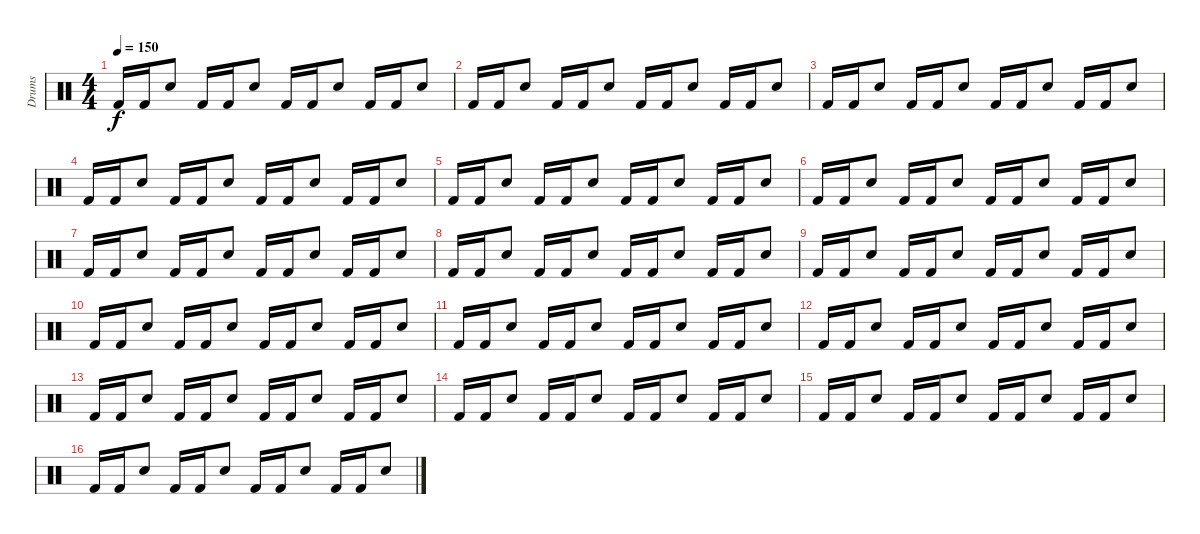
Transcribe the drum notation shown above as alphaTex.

\track ("Drums" "Drums") {instrument percussion}
\staff {score}
\articulation defaults
\ts (4 4)
\tempo 150
\clef neutral
\ks c "Kick (hit) 2".16{dy f} "Kick (hit) 2".16 "Snare (hit) 2".8 "Kick (hit) 2".16 "Kick (hit) 2".16 "Snare (hit) 2".8 "Kick (hit) 2".16 "Kick (hit) 2".16 "Snare (hit) 2".8 "Kick (hit) 2".16 "Kick (hit) 2".16 "Snare (hit) 2".8
|
"Kick (hit) 2".16 "Kick (hit) 2".16 "Snare (hit) 2".8 "Kick (hit) 2".16 "Kick (hit) 2".16 "Snare (hit) 2".8 "Kick (hit) 2".16 "Kick (hit) 2".16 "Snare (hit) 2".8 "Kick (hit) 2".16 "Kick (hit) 2".16 "Snare (hit) 2".8 |
"Kick (hit) 2".16 "Kick (hit) 2".16 "Snare (hit) 2".8 "Kick (hit) 2".16 "Kick (hit) 2".16 "Snare (hit) 2".8 "Kick (hit) 2".16 "Kick (hit) 2".16 "Snare (hit) 2".8 "Kick (hit) 2".16 "Kick (hit) 2".16 "Snare (hit) 2".8 |
"Kick (hit) 2".16 "Kick (hit) 2".16 "Snare (hit) 2".8 "Kick (hit) 2".16 "Kick (hit) 2".16 "Snare (hit) 2".8 "Kick (hit) 2".16 "Kick (hit) 2".16 "Snare (hit) 2".8 "Kick (hit) 2".16 "Kick (hit) 2".16 "Snare (hit) 2".8 |
"Kick (hit) 2".16 "Kick (hit) 2".16 "Snare (hit) 2".8 "Kick (hit) 2".16 "Kick (hit) 2".16 "Snare (hit) 2".8 "Kick (hit) 2".16 "Kick (hit) 2".16 "Snare (hit) 2".8 "Kick (hit) 2".16 "Kick (hit) 2".16 "Snare (hit) 2".8 |
"Kick (hit) 2".16 "Kick (hit) 2".16 "Snare (hit) 2".8 "Kick (hit) 2".16 "Kick (hit) 2".16 "Snare (hit) 2".8 "Kick (hit) 2".16 "Kick (hit) 2".16 "Snare (hit) 2".8 "Kick (hit) 2".16 "Kick (hit) 2".16 "Snare (hit) 2".8 |
"Kick (hit) 2".16 "Kick (hit) 2".16 "Snare (hit) 2".8 "Kick (hit) 2".16 "Kick (hit) 2".16 "Snare (hit) 2".8 "Kick (hit) 2".16 "Kick (hit) 2".16 "Snare (hit) 2".8 "Kick (hit) 2".16 "Kick (hit) 2".16 "Snare (hit) 2".8 |
"Kick (hit) 2".16 "Kick (hit) 2".16 "Snare (hit) 2".8 "Kick (hit) 2".16 "Kick (hit) 2".16 "Snare (hit) 2".8 "Kick (hit) 2".16 "Kick (hit) 2".16 "Snare (hit) 2".8 "Kick (hit) 2".16 "Kick (hit) 2".16 "Snare (hit) 2".8 |
"Kick (hit) 2".16 "Kick (hit) 2".16 "Snare (hit) 2".8 "Kick (hit) 2".16 "Kick (hit) 2".16 "Snare (hit) 2".8 "Kick (hit) 2".16 "Kick (hit) 2".16 "Snare (hit) 2".8 "Kick (hit) 2".16 "Kick (hit) 2".16 "Snare (hit) 2".8 |
"Kick (hit) 2".16 "Kick (hit) 2".16 "Snare (hit) 2".8 "Kick (hit) 2".16 "Kick (hit) 2".16 "Snare (hit) 2".8 "Kick (hit) 2".16 "Kick (hit) 2".16 "Snare (hit) 2".8 "Kick (hit) 2".16 "Kick (hit) 2".16 "Snare (hit) 2".8 |
"Kick (hit) 2".16 "Kick (hit) 2".16 "Snare (hit) 2".8 "Kick (hit) 2".16 "Kick (hit) 2".16 "Snare (hit) 2".8 "Kick (hit) 2".16 "Kick (hit) 2".16 "Snare (hit) 2".8 "Kick (hit) 2".16 "Kick (hit) 2".16 "Snare (hit) 2".8 |
"Kick (hit) 2".16 "Kick (hit) 2".16 "Snare (hit) 2".8 "Kick (hit) 2".16 "Kick (hit) 2".16 "Snare (hit) 2".8 "Kick (hit) 2".16 "Kick (hit) 2".16 "Snare (hit) 2".8 "Kick (hit) 2".16 "Kick (hit) 2".16 "Snare (hit) 2".8 |
"Kick (hit) 2".16 "Kick (hit) 2".16 "Snare (hit) 2".8 "Kick (hit) 2".16 "Kick (hit) 2".16 "Snare (hit) 2".8 "Kick (hit) 2".16 "Kick (hit) 2".16 "Snare (hit) 2".8 "Kick (hit) 2".16 "Kick (hit) 2".16 "Snare (hit) 2".8 |
"Kick (hit) 2".16 "Kick (hit) 2".16 "Snare (hit) 2".8 "Kick (hit) 2".16 "Kick (hit) 2".16 "Snare (hit) 2".8 "Kick (hit) 2".16 "Kick (hit) 2".16 "Snare (hit) 2".8 "Kick (hit) 2".16 "Kick (hit) 2".16 "Snare (hit) 2".8 |
"Kick (hit) 2".16 "Kick (hit) 2".16 "Snare (hit) 2".8 "Kick (hit) 2".16 "Kick (hit) 2".16 "Snare (hit) 2".8 "Kick (hit) 2".16 "Kick (hit) 2".16 "Snare (hit) 2".8 "Kick (hit) 2".16 "Kick (hit) 2".16 "Snare (hit) 2".8 |
"Kick (hit) 2".16 "Kick (hit) 2".16 "Snare (hit) 2".8 "Kick (hit) 2".16 "Kick (hit) 2".16 "Snare (hit) 2".8 "Kick (hit) 2".16 "Kick (hit) 2".16 "Snare (hit) 2".8 "Kick (hit) 2".16 "Kick (hit) 2".16 "Snare (hit) 2".8
